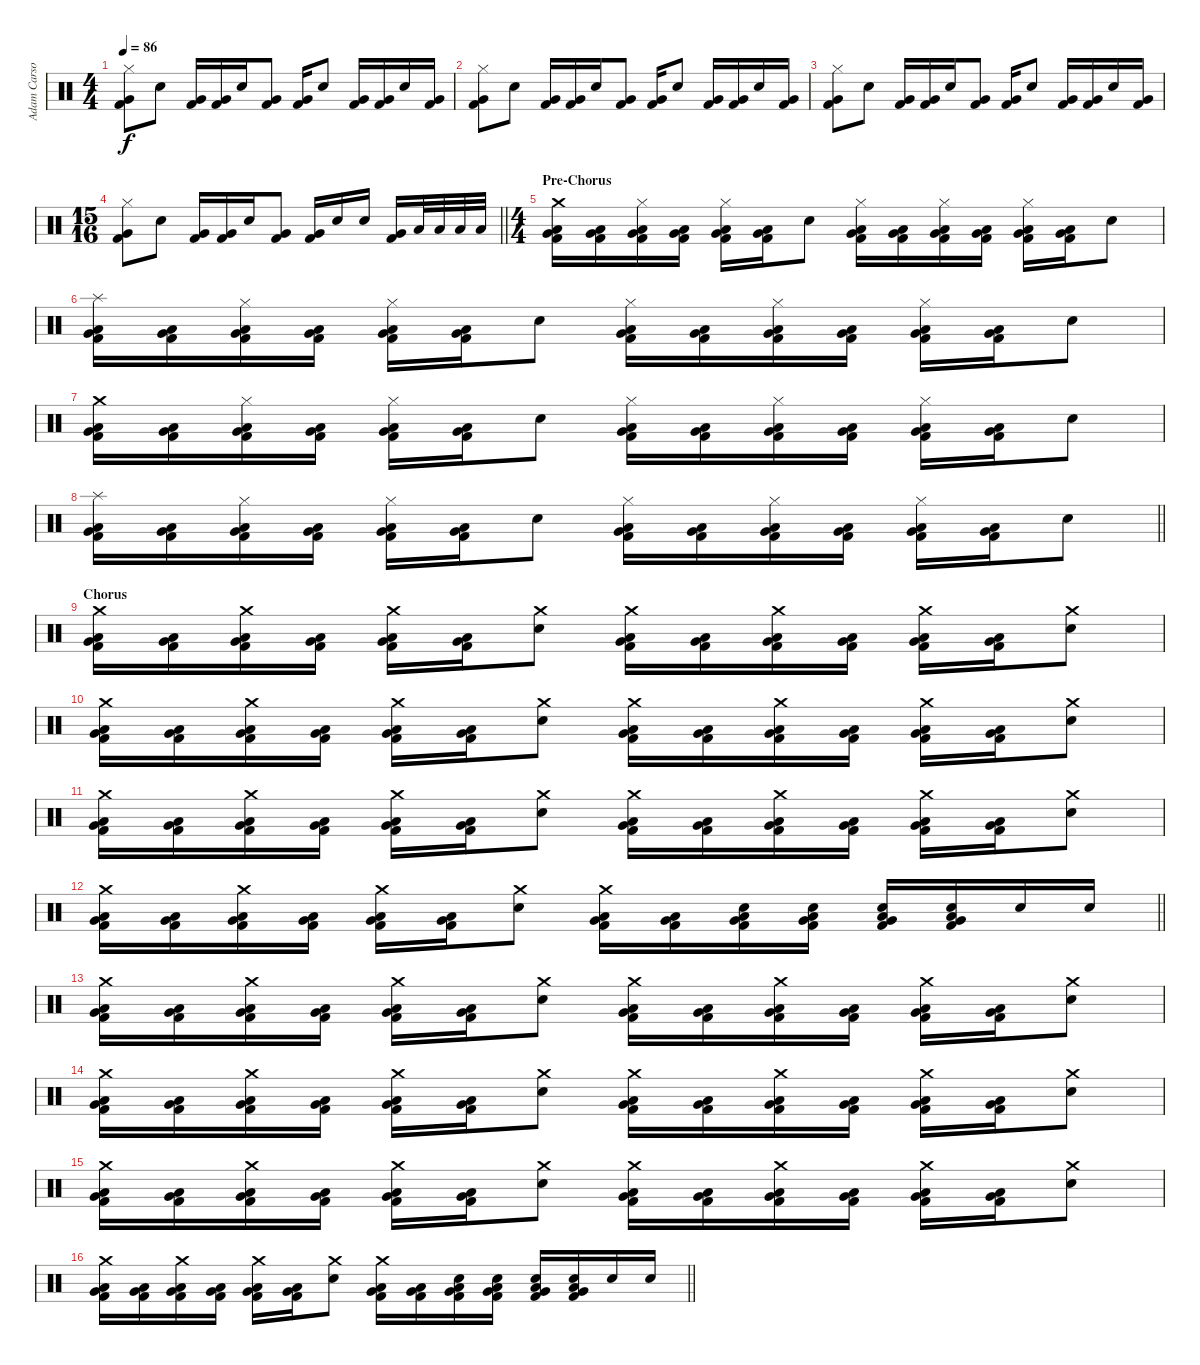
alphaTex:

\track ("Adam Carson" "Adam Carso") {instrument percussion}
\staff {score}
\articulation defaults
\ts (4 4)
\tempo 86
\clef neutral
\ks c
("Hi-Hat (closed)" "Very Low Tom (hit)" "Kick (hit) 2").8{dy f} "Snare (hit) 2".8 ("Very Low Tom (hit)" "Kick (hit) 2").16 ("Very Low Tom (hit)" "Kick (hit) 2").16 "Snare (hit) 2".16 ("Very Low Tom (hit)" "Kick (hit) 2").8 ("Very Low Tom (hit)" "Kick (hit) 2").16 "Snare (hit) 2".8 ("Very Low Tom (hit)" "Kick (hit) 2").16 ("Very Low Tom (hit)" "Kick (hit) 2").16 "Snare (hit) 2".16 ("Very Low Tom (hit)" "Kick (hit) 2").16 |
("Hi-Hat (closed)" "Very Low Tom (hit)" "Kick (hit) 2").8 "Snare (hit) 2".8 ("Very Low Tom (hit)" "Kick (hit) 2").16 ("Very Low Tom (hit)" "Kick (hit) 2").16 "Snare (hit) 2".16 ("Very Low Tom (hit)" "Kick (hit) 2").8 ("Very Low Tom (hit)" "Kick (hit) 2").16 "Snare (hit) 2".8 ("Very Low Tom (hit)" "Kick (hit) 2").16 ("Very Low Tom (hit)" "Kick (hit) 2").16 "Snare (hit) 2".16 ("Very Low Tom (hit)" "Kick (hit) 2").16 |
("Hi-Hat (closed)" "Very Low Tom (hit)" "Kick (hit) 2").8 "Snare (hit) 2".8 ("Very Low Tom (hit)" "Kick (hit) 2").16 ("Very Low Tom (hit)" "Kick (hit) 2").16 "Snare (hit) 2".16 ("Very Low Tom (hit)" "Kick (hit) 2").8 ("Very Low Tom (hit)" "Kick (hit) 2").16 "Snare (hit) 2".8 ("Very Low Tom (hit)" "Kick (hit) 2").16 ("Very Low Tom (hit)" "Kick (hit) 2").16 "Snare (hit) 2".16 ("Very Low Tom (hit)" "Kick (hit) 2").16 |
\ts (15 16)
\barLineRight lightlight
("Hi-Hat (closed)" "Very Low Tom (hit)" "Kick (hit) 2").8 "Snare (hit) 2".8 ("Very Low Tom (hit)" "Kick (hit) 2").16 ("Very Low Tom (hit)" "Kick (hit) 2").16 "Snare (hit) 2".16 ("Very Low Tom (hit)" "Kick (hit) 2").8 ("Very Low Tom (hit)" "Kick (hit) 2").16 "Snare (hit) 2".16 "Snare (hit) 2".16 ("Very Low Tom (hit)" "Kick (hit) 2").16 "Low Tom (hit)".32 "Low Tom (hit)".32 "Low Tom (hit)".32 "Low Tom (hit)".32 |
\ts (4 4)
\section ("" "Pre-Chorus")
("Crash medium (hit)" "Low Tom (hit)" "Very Low Tom (hit)" "Kick (hit) 2").16 ("Low Tom (hit)" "Very Low Tom (hit)" "Kick (hit) 2").16 ("Hi-Hat (closed)" "Low Tom (hit)" "Very Low Tom (hit)" "Kick (hit) 2").16 ("Low Tom (hit)" "Very Low Tom (hit)" "Kick (hit) 2").16 ("Hi-Hat (closed)" "Low Tom (hit)" "Very Low Tom (hit)" "Kick (hit) 2").16 ("Low Tom (hit)" "Very Low Tom (hit)" "Kick (hit) 2").16 "Snare (hit) 2".8 ("Hi-Hat (closed)" "Low Tom (hit)" "Very Low Tom (hit)" "Kick (hit) 2").16 ("Low Tom (hit)" "Very Low Tom (hit)" "Kick (hit) 2").16 ("Hi-Hat (closed)" "Low Tom (hit)" "Very Low Tom (hit)" "Kick (hit) 2").16 ("Low Tom (hit)" "Very Low Tom (hit)" "Kick (hit) 2").16 ("Hi-Hat (closed)" "Low Tom (hit)" "Very Low Tom (hit)" "Kick (hit) 2").16 ("Low Tom (hit)" "Very Low Tom (hit)" "Kick (hit) 2").16 "Snare (hit) 2".8 |
("Splash (hit)" "Low Tom (hit)" "Very Low Tom (hit)" "Kick (hit) 2").16 ("Low Tom (hit)" "Very Low Tom (hit)" "Kick (hit) 2").16 ("Hi-Hat (closed)" "Low Tom (hit)" "Very Low Tom (hit)" "Kick (hit) 2").16 ("Low Tom (hit)" "Very Low Tom (hit)" "Kick (hit) 2").16 ("Hi-Hat (closed)" "Low Tom (hit)" "Very Low Tom (hit)" "Kick (hit) 2").16 ("Low Tom (hit)" "Very Low Tom (hit)" "Kick (hit) 2").16 "Snare (hit) 2".8 ("Hi-Hat (closed)" "Low Tom (hit)" "Very Low Tom (hit)" "Kick (hit) 2").16 ("Low Tom (hit)" "Very Low Tom (hit)" "Kick (hit) 2").16 ("Hi-Hat (closed)" "Low Tom (hit)" "Very Low Tom (hit)" "Kick (hit) 2").16 ("Low Tom (hit)" "Very Low Tom (hit)" "Kick (hit) 2").16 ("Hi-Hat (closed)" "Low Tom (hit)" "Very Low Tom (hit)" "Kick (hit) 2").16 ("Low Tom (hit)" "Very Low Tom (hit)" "Kick (hit) 2").16 "Snare (hit) 2".8 |
("Crash medium (hit)" "Low Tom (hit)" "Very Low Tom (hit)" "Kick (hit) 2").16 ("Low Tom (hit)" "Very Low Tom (hit)" "Kick (hit) 2").16 ("Hi-Hat (closed)" "Low Tom (hit)" "Very Low Tom (hit)" "Kick (hit) 2").16 ("Low Tom (hit)" "Very Low Tom (hit)" "Kick (hit) 2").16 ("Hi-Hat (closed)" "Low Tom (hit)" "Very Low Tom (hit)" "Kick (hit) 2").16 ("Low Tom (hit)" "Very Low Tom (hit)" "Kick (hit) 2").16 "Snare (hit) 2".8 ("Hi-Hat (closed)" "Low Tom (hit)" "Very Low Tom (hit)" "Kick (hit) 2").16 ("Low Tom (hit)" "Very Low Tom (hit)" "Kick (hit) 2").16 ("Hi-Hat (closed)" "Low Tom (hit)" "Very Low Tom (hit)" "Kick (hit) 2").16 ("Low Tom (hit)" "Very Low Tom (hit)" "Kick (hit) 2").16 ("Hi-Hat (closed)" "Low Tom (hit)" "Very Low Tom (hit)" "Kick (hit) 2").16 ("Low Tom (hit)" "Very Low Tom (hit)" "Kick (hit) 2").16 "Snare (hit) 2".8 |
\barLineRight lightlight
("Splash (hit)" "Low Tom (hit)" "Very Low Tom (hit)" "Kick (hit) 2").16 ("Low Tom (hit)" "Very Low Tom (hit)" "Kick (hit) 2").16 ("Hi-Hat (closed)" "Low Tom (hit)" "Very Low Tom (hit)" "Kick (hit) 2").16 ("Low Tom (hit)" "Very Low Tom (hit)" "Kick (hit) 2").16 ("Hi-Hat (closed)" "Low Tom (hit)" "Very Low Tom (hit)" "Kick (hit) 2").16 ("Low Tom (hit)" "Very Low Tom (hit)" "Kick (hit) 2").16 "Snare (hit) 2".8 ("Hi-Hat (closed)" "Low Tom (hit)" "Very Low Tom (hit)" "Kick (hit) 2").16 ("Low Tom (hit)" "Very Low Tom (hit)" "Kick (hit) 2").16 ("Hi-Hat (closed)" "Low Tom (hit)" "Very Low Tom (hit)" "Kick (hit) 2").16 ("Low Tom (hit)" "Very Low Tom (hit)" "Kick (hit) 2").16 ("Hi-Hat (closed)" "Low Tom (hit)" "Very Low Tom (hit)" "Kick (hit) 2").16 ("Low Tom (hit)" "Very Low Tom (hit)" "Kick (hit) 2").16 "Snare (hit) 2".8 |
\section ("" "Chorus")
("Crash medium (hit)" "Low Tom (hit)" "Very Low Tom (hit)" "Kick (hit) 2").16 ("Low Tom (hit)" "Very Low Tom (hit)" "Kick (hit) 2").16 ("Crash medium (hit)" "Low Tom (hit)" "Very Low Tom (hit)" "Kick (hit) 2").16 ("Low Tom (hit)" "Very Low Tom (hit)" "Kick (hit) 2").16 ("Crash medium (hit)" "Low Tom (hit)" "Very Low Tom (hit)" "Kick (hit) 2").16 ("Low Tom (hit)" "Very Low Tom (hit)" "Kick (hit) 2").16 ("Crash medium (hit)" "Snare (hit) 2").8 ("Crash medium (hit)" "Low Tom (hit)" "Very Low Tom (hit)" "Kick (hit) 2").16 ("Low Tom (hit)" "Very Low Tom (hit)" "Kick (hit) 2").16 ("Crash medium (hit)" "Low Tom (hit)" "Very Low Tom (hit)" "Kick (hit) 2").16 ("Low Tom (hit)" "Very Low Tom (hit)" "Kick (hit) 2").16 ("Crash medium (hit)" "Low Tom (hit)" "Very Low Tom (hit)" "Kick (hit) 2").16 ("Low Tom (hit)" "Very Low Tom (hit)" "Kick (hit) 2").16 ("Crash medium (hit)" "Snare (hit) 2").8 |
("Crash medium (hit)" "Low Tom (hit)" "Very Low Tom (hit)" "Kick (hit) 2").16 ("Low Tom (hit)" "Very Low Tom (hit)" "Kick (hit) 2").16 ("Crash medium (hit)" "Low Tom (hit)" "Very Low Tom (hit)" "Kick (hit) 2").16 ("Low Tom (hit)" "Very Low Tom (hit)" "Kick (hit) 2").16 ("Crash medium (hit)" "Low Tom (hit)" "Very Low Tom (hit)" "Kick (hit) 2").16 ("Low Tom (hit)" "Very Low Tom (hit)" "Kick (hit) 2").16 ("Crash medium (hit)" "Snare (hit) 2").8 ("Crash medium (hit)" "Low Tom (hit)" "Very Low Tom (hit)" "Kick (hit) 2").16 ("Low Tom (hit)" "Very Low Tom (hit)" "Kick (hit) 2").16 ("Crash medium (hit)" "Low Tom (hit)" "Very Low Tom (hit)" "Kick (hit) 2").16 ("Low Tom (hit)" "Very Low Tom (hit)" "Kick (hit) 2").16 ("Crash medium (hit)" "Low Tom (hit)" "Very Low Tom (hit)" "Kick (hit) 2").16 ("Low Tom (hit)" "Very Low Tom (hit)" "Kick (hit) 2").16 ("Crash medium (hit)" "Snare (hit) 2").8 |
("Crash medium (hit)" "Low Tom (hit)" "Very Low Tom (hit)" "Kick (hit) 2").16 ("Low Tom (hit)" "Very Low Tom (hit)" "Kick (hit) 2").16 ("Crash medium (hit)" "Low Tom (hit)" "Very Low Tom (hit)" "Kick (hit) 2").16 ("Low Tom (hit)" "Very Low Tom (hit)" "Kick (hit) 2").16 ("Crash medium (hit)" "Low Tom (hit)" "Very Low Tom (hit)" "Kick (hit) 2").16 ("Low Tom (hit)" "Very Low Tom (hit)" "Kick (hit) 2").16 ("Crash medium (hit)" "Snare (hit) 2").8 ("Crash medium (hit)" "Low Tom (hit)" "Very Low Tom (hit)" "Kick (hit) 2").16 ("Low Tom (hit)" "Very Low Tom (hit)" "Kick (hit) 2").16 ("Crash medium (hit)" "Low Tom (hit)" "Very Low Tom (hit)" "Kick (hit) 2").16 ("Low Tom (hit)" "Very Low Tom (hit)" "Kick (hit) 2").16 ("Crash medium (hit)" "Low Tom (hit)" "Very Low Tom (hit)" "Kick (hit) 2").16 ("Low Tom (hit)" "Very Low Tom (hit)" "Kick (hit) 2").16 ("Crash medium (hit)" "Snare (hit) 2").8 |
\barLineRight lightlight
("Crash medium (hit)" "Low Tom (hit)" "Very Low Tom (hit)" "Kick (hit) 2").16 ("Low Tom (hit)" "Very Low Tom (hit)" "Kick (hit) 2").16 ("Crash medium (hit)" "Low Tom (hit)" "Very Low Tom (hit)" "Kick (hit) 2").16 ("Low Tom (hit)" "Very Low Tom (hit)" "Kick (hit) 2").16 ("Crash medium (hit)" "Low Tom (hit)" "Very Low Tom (hit)" "Kick (hit) 2").16 ("Low Tom (hit)" "Very Low Tom (hit)" "Kick (hit) 2").16 ("Crash medium (hit)" "Snare (hit) 2").8 ("Crash medium (hit)" "Low Tom (hit)" "Very Low Tom (hit)" "Kick (hit) 2").16 ("Low Tom (hit)" "Very Low Tom (hit)" "Kick (hit) 2").16 ("Snare (hit) 2" "Low Tom (hit)" "Very Low Tom (hit)" "Kick (hit) 2").16 ("Snare (hit) 2" "Low Tom (hit)" "Very Low Tom (hit)" "Kick (hit) 2").16 ("Snare (hit) 2" "Low Tom (hit)" "Very Low Tom (hit)" "Kick (hit) 2").16 ("Snare (hit) 2" "Low Tom (hit)" "Very Low Tom (hit)" "Kick (hit) 2").16 "Snare (hit) 2".16 "Snare (hit) 2".16 |
("Crash medium (hit)" "Low Tom (hit)" "Very Low Tom (hit)" "Kick (hit) 2").16 ("Low Tom (hit)" "Very Low Tom (hit)" "Kick (hit) 2").16 ("Crash medium (hit)" "Low Tom (hit)" "Very Low Tom (hit)" "Kick (hit) 2").16 ("Low Tom (hit)" "Very Low Tom (hit)" "Kick (hit) 2").16 ("Crash medium (hit)" "Low Tom (hit)" "Very Low Tom (hit)" "Kick (hit) 2").16 ("Low Tom (hit)" "Very Low Tom (hit)" "Kick (hit) 2").16 ("Crash medium (hit)" "Snare (hit) 2").8 ("Crash medium (hit)" "Low Tom (hit)" "Very Low Tom (hit)" "Kick (hit) 2").16 ("Low Tom (hit)" "Very Low Tom (hit)" "Kick (hit) 2").16 ("Crash medium (hit)" "Low Tom (hit)" "Very Low Tom (hit)" "Kick (hit) 2").16 ("Low Tom (hit)" "Very Low Tom (hit)" "Kick (hit) 2").16 ("Crash medium (hit)" "Low Tom (hit)" "Very Low Tom (hit)" "Kick (hit) 2").16 ("Low Tom (hit)" "Very Low Tom (hit)" "Kick (hit) 2").16 ("Crash medium (hit)" "Snare (hit) 2").8 |
("Crash medium (hit)" "Low Tom (hit)" "Very Low Tom (hit)" "Kick (hit) 2").16 ("Low Tom (hit)" "Very Low Tom (hit)" "Kick (hit) 2").16 ("Crash medium (hit)" "Low Tom (hit)" "Very Low Tom (hit)" "Kick (hit) 2").16 ("Low Tom (hit)" "Very Low Tom (hit)" "Kick (hit) 2").16 ("Crash medium (hit)" "Low Tom (hit)" "Very Low Tom (hit)" "Kick (hit) 2").16 ("Low Tom (hit)" "Very Low Tom (hit)" "Kick (hit) 2").16 ("Crash medium (hit)" "Snare (hit) 2").8 ("Crash medium (hit)" "Low Tom (hit)" "Very Low Tom (hit)" "Kick (hit) 2").16 ("Low Tom (hit)" "Very Low Tom (hit)" "Kick (hit) 2").16 ("Crash medium (hit)" "Low Tom (hit)" "Very Low Tom (hit)" "Kick (hit) 2").16 ("Low Tom (hit)" "Very Low Tom (hit)" "Kick (hit) 2").16 ("Crash medium (hit)" "Low Tom (hit)" "Very Low Tom (hit)" "Kick (hit) 2").16 ("Low Tom (hit)" "Very Low Tom (hit)" "Kick (hit) 2").16 ("Crash medium (hit)" "Snare (hit) 2").8 |
("Crash medium (hit)" "Low Tom (hit)" "Very Low Tom (hit)" "Kick (hit) 2").16 ("Low Tom (hit)" "Very Low Tom (hit)" "Kick (hit) 2").16 ("Crash medium (hit)" "Low Tom (hit)" "Very Low Tom (hit)" "Kick (hit) 2").16 ("Low Tom (hit)" "Very Low Tom (hit)" "Kick (hit) 2").16 ("Crash medium (hit)" "Low Tom (hit)" "Very Low Tom (hit)" "Kick (hit) 2").16 ("Low Tom (hit)" "Very Low Tom (hit)" "Kick (hit) 2").16 ("Crash medium (hit)" "Snare (hit) 2").8 ("Crash medium (hit)" "Low Tom (hit)" "Very Low Tom (hit)" "Kick (hit) 2").16 ("Low Tom (hit)" "Very Low Tom (hit)" "Kick (hit) 2").16 ("Crash medium (hit)" "Low Tom (hit)" "Very Low Tom (hit)" "Kick (hit) 2").16 ("Low Tom (hit)" "Very Low Tom (hit)" "Kick (hit) 2").16 ("Crash medium (hit)" "Low Tom (hit)" "Very Low Tom (hit)" "Kick (hit) 2").16 ("Low Tom (hit)" "Very Low Tom (hit)" "Kick (hit) 2").16 ("Crash medium (hit)" "Snare (hit) 2").8 |
\barLineRight lightlight
("Crash medium (hit)" "Low Tom (hit)" "Very Low Tom (hit)" "Kick (hit) 2").16 ("Low Tom (hit)" "Very Low Tom (hit)" "Kick (hit) 2").16 ("Crash medium (hit)" "Low Tom (hit)" "Very Low Tom (hit)" "Kick (hit) 2").16 ("Low Tom (hit)" "Very Low Tom (hit)" "Kick (hit) 2").16 ("Crash medium (hit)" "Low Tom (hit)" "Very Low Tom (hit)" "Kick (hit) 2").16 ("Low Tom (hit)" "Very Low Tom (hit)" "Kick (hit) 2").16 ("Crash medium (hit)" "Snare (hit) 2").8 ("Crash medium (hit)" "Low Tom (hit)" "Very Low Tom (hit)" "Kick (hit) 2").16 ("Low Tom (hit)" "Very Low Tom (hit)" "Kick (hit) 2").16 ("Snare (hit) 2" "Low Tom (hit)" "Very Low Tom (hit)" "Kick (hit) 2").16 ("Snare (hit) 2" "Low Tom (hit)" "Very Low Tom (hit)" "Kick (hit) 2").16 ("Snare (hit) 2" "Low Tom (hit)" "Very Low Tom (hit)" "Kick (hit) 2").16 ("Snare (hit) 2" "Low Tom (hit)" "Very Low Tom (hit)" "Kick (hit) 2").16 "Snare (hit) 2".16 "Snare (hit) 2".16
